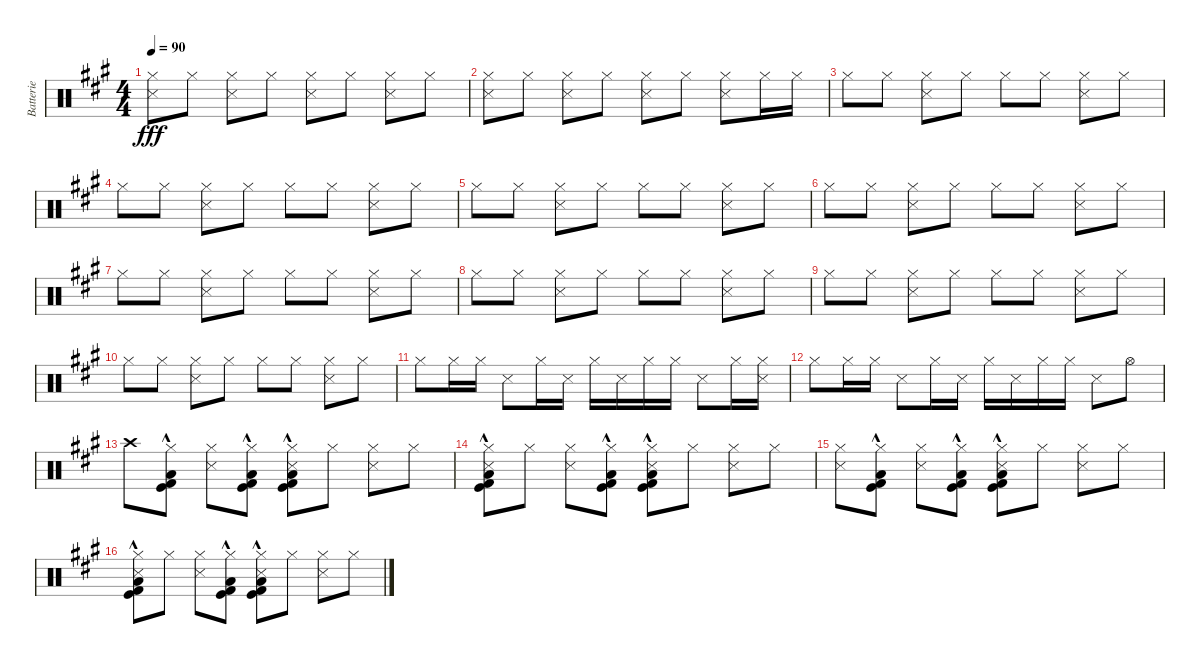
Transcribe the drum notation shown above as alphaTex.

\track ("Batterie" "Batterie") {instrument percussion}
\staff {score}
\articulation defaults
\ts (4 4)
\tempo 90
\clef neutral
\ks a
("Hi-Hat (closed)" "Snare (side stick) 3").8{dy fff} "Hi-Hat (closed)".8 ("Hi-Hat (closed)" "Snare (side stick) 3").8 "Hi-Hat (closed)".8 ("Hi-Hat (closed)" "Snare (side stick) 3").8 "Hi-Hat (closed)".8 ("Hi-Hat (closed)" "Snare (side stick) 3").8 "Hi-Hat (closed)".8 |
("Hi-Hat (closed)" "Snare (side stick) 3").8 "Hi-Hat (closed)".8 ("Hi-Hat (closed)" "Snare (side stick) 3").8 "Hi-Hat (closed)".8 ("Hi-Hat (closed)" "Snare (side stick) 3").8 "Hi-Hat (closed)".8 ("Hi-Hat (closed)" "Snare (side stick) 3").8 "Hi-Hat (closed)".16 "Hi-Hat (closed)".16 |
"Hi-Hat (closed)".8 "Hi-Hat (closed)".8 ("Hi-Hat (closed)" "Snare (side stick) 3").8 "Hi-Hat (closed)".8 "Hi-Hat (closed)".8 "Hi-Hat (closed)".8 ("Hi-Hat (closed)" "Snare (side stick) 3").8 "Hi-Hat (closed)".8 |
"Hi-Hat (closed)".8 "Hi-Hat (closed)".8 ("Hi-Hat (closed)" "Snare (side stick) 3").8 "Hi-Hat (closed)".8 "Hi-Hat (closed)".8 "Hi-Hat (closed)".8 ("Hi-Hat (closed)" "Snare (side stick) 3").8 "Hi-Hat (closed)".8 |
"Hi-Hat (closed)".8 "Hi-Hat (closed)".8 ("Hi-Hat (closed)" "Snare (side stick) 3").8 "Hi-Hat (closed)".8 "Hi-Hat (closed)".8 "Hi-Hat (closed)".8 ("Hi-Hat (closed)" "Snare (side stick) 3").8 "Hi-Hat (closed)".8 |
"Hi-Hat (closed)".8 "Hi-Hat (closed)".8 ("Hi-Hat (closed)" "Snare (side stick) 3").8 "Hi-Hat (closed)".8 "Hi-Hat (closed)".8 "Hi-Hat (closed)".8 ("Hi-Hat (closed)" "Snare (side stick) 3").8 "Hi-Hat (closed)".8 |
"Hi-Hat (closed)".8 "Hi-Hat (closed)".8 ("Hi-Hat (closed)" "Snare (side stick) 3").8 "Hi-Hat (closed)".8 "Hi-Hat (closed)".8 "Hi-Hat (closed)".8 ("Hi-Hat (closed)" "Snare (side stick) 3").8 "Hi-Hat (closed)".8 |
"Hi-Hat (closed)".8 "Hi-Hat (closed)".8 ("Hi-Hat (closed)" "Snare (side stick) 3").8 "Hi-Hat (closed)".8 "Hi-Hat (closed)".8 "Hi-Hat (closed)".8 ("Hi-Hat (closed)" "Snare (side stick) 3").8 "Hi-Hat (closed)".8 |
"Hi-Hat (closed)".8 "Hi-Hat (closed)".8 ("Hi-Hat (closed)" "Snare (side stick) 3").8 "Hi-Hat (closed)".8 "Hi-Hat (closed)".8 "Hi-Hat (closed)".8 ("Hi-Hat (closed)" "Snare (side stick) 3").8 "Hi-Hat (closed)".8 |
"Hi-Hat (closed)".8 "Hi-Hat (closed)".8 ("Hi-Hat (closed)" "Snare (side stick) 3").8 "Hi-Hat (closed)".8 "Hi-Hat (closed)".8 "Hi-Hat (closed)".8 ("Hi-Hat (closed)" "Snare (side stick) 3").8 "Hi-Hat (closed)".8 |
"Hi-Hat (closed)".8 "Hi-Hat (closed)".16 "Hi-Hat (closed)".16 "Snare (side stick) 3".8 "Hi-Hat (closed)".16 "Snare (side stick) 3".16 "Hi-Hat (closed)".16 "Snare (side stick) 3".16 "Hi-Hat (closed)".16 "Hi-Hat (closed)".16 "Snare (side stick) 3".8 "Hi-Hat (closed)".16 ("Hi-Hat (closed)" "Snare (side stick) 3").16 |
"Hi-Hat (closed)".8 "Hi-Hat (closed)".16 "Hi-Hat (closed)".16 "Snare (side stick) 3".8 "Hi-Hat (closed)".16 "Snare (side stick) 3".16 "Hi-Hat (closed)".16 "Snare (side stick) 3".16 "Hi-Hat (closed)".16 "Hi-Hat (closed)".16 "Snare (side stick) 3".8 "Hi-Hat (open)".8 |
"Crash high (hit)".8 ("Hi-Hat (closed)" "Kick (hit)"{hac} "Kick (hit) 2"{hac} "Low Floor Tom (hit)"{hac}).8 ("Hi-Hat (closed)" "Snare (side stick) 3").8 ("Hi-Hat (closed)" "Kick (hit)"{hac} "Kick (hit) 2"{hac} "Low Floor Tom (hit)"{hac}).8 ("Hi-Hat (closed)" "Snare (side stick) 3" "Kick (hit)"{hac} "Kick (hit) 2"{hac} "Low Floor Tom (hit)"{hac}).8 "Hi-Hat (closed)".8 ("Hi-Hat (closed)" "Snare (side stick) 3").8 "Hi-Hat (closed)".8 |
("Hi-Hat (closed)" "Snare (side stick) 3" "Kick (hit)"{hac} "Kick (hit) 2"{hac} "Low Floor Tom (hit)"{hac}).8 "Hi-Hat (closed)".8 ("Hi-Hat (closed)" "Snare (side stick) 3").8 ("Hi-Hat (closed)" "Kick (hit)"{hac} "Kick (hit) 2"{hac} "Low Floor Tom (hit)"{hac}).8 ("Hi-Hat (closed)" "Snare (side stick) 3" "Kick (hit)"{hac} "Kick (hit) 2"{hac} "Low Floor Tom (hit)"{hac}).8 "Hi-Hat (closed)".8 ("Hi-Hat (closed)" "Snare (side stick) 3").8 "Hi-Hat (closed)".8 |
("Hi-Hat (closed)" "Snare (side stick) 3").8 ("Hi-Hat (closed)" "Kick (hit)"{hac} "Kick (hit) 2"{hac} "Low Floor Tom (hit)"{hac}).8 ("Hi-Hat (closed)" "Snare (side stick) 3").8 ("Hi-Hat (closed)" "Kick (hit)"{hac} "Kick (hit) 2"{hac} "Low Floor Tom (hit)"{hac}).8 ("Hi-Hat (closed)" "Snare (side stick) 3" "Kick (hit)"{hac} "Kick (hit) 2"{hac} "Low Floor Tom (hit)"{hac}).8 "Hi-Hat (closed)".8 ("Hi-Hat (closed)" "Snare (side stick) 3").8 "Hi-Hat (closed)".8 |
("Hi-Hat (closed)" "Snare (side stick) 3" "Kick (hit)"{hac} "Kick (hit) 2"{hac} "Low Floor Tom (hit)"{hac}).8 "Hi-Hat (closed)".8 ("Hi-Hat (closed)" "Snare (side stick) 3").8 ("Hi-Hat (closed)" "Kick (hit)"{hac} "Kick (hit) 2"{hac} "Low Floor Tom (hit)"{hac}).8 ("Hi-Hat (closed)" "Snare (side stick) 3" "Kick (hit)"{hac} "Kick (hit) 2"{hac} "Low Floor Tom (hit)"{hac}).8 "Hi-Hat (closed)".8 ("Hi-Hat (closed)" "Snare (side stick) 3").8 "Hi-Hat (closed)".8
